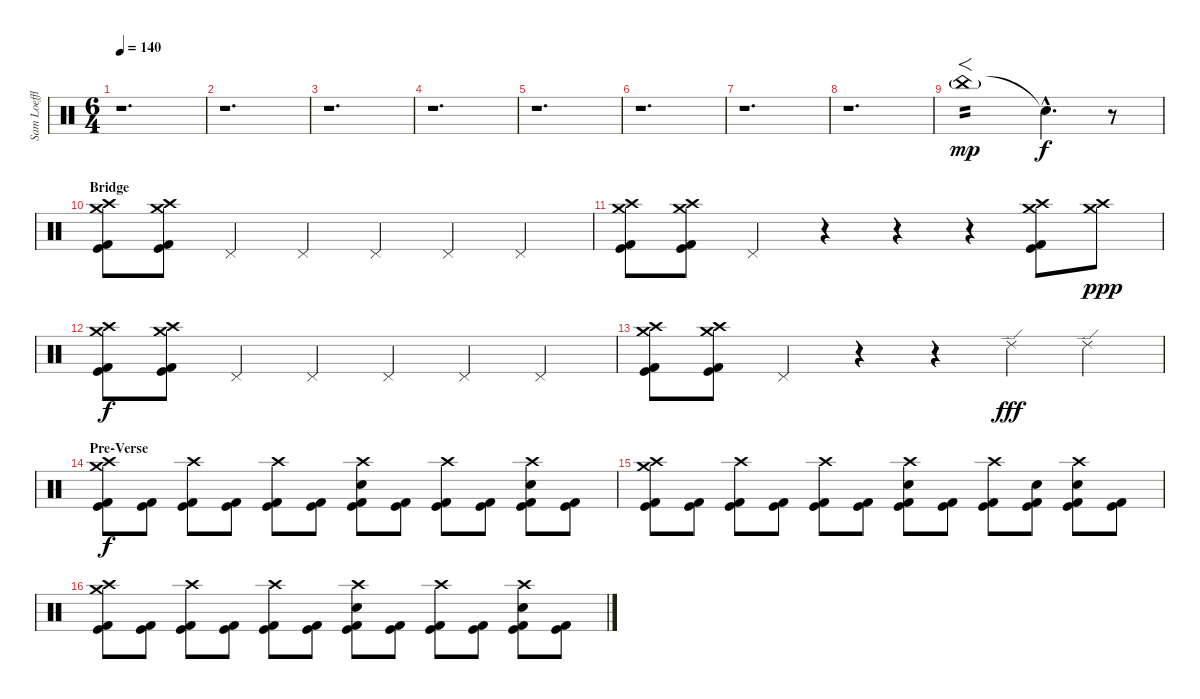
\track ("Sam Loeffler - Drums" "Sam Loeffl") {instrument percussion}
\staff {score}
\articulation defaults
\ts (6 4)
\tempo 140
\clef neutral
\ks c
r.1{d dy f} |
r.1{d} |
r.1{d} |
r.1{d} |
r.1{d} |
r.1{d} |
r.1{d} |
r.1{d} |
"China (hit)"{g}.1{f tp 2 dy mp} "Snare (hit)"{hac t}.4{d dy f} r.8 |
\section ("" "Bridge")
("Crash medium (hit)" "Crash high (hit)" "Kick (hit)" "Kick (hit) 2").8 ("Crash medium (hit)" "Crash high (hit)" "Kick (hit)" "Kick (hit) 2").8 "Pedal Hi-Hat (hit)".4 "Pedal Hi-Hat (hit)".4 "Pedal Hi-Hat (hit)".4 "Pedal Hi-Hat (hit)".4 "Pedal Hi-Hat (hit)".4 |
("Crash medium (hit)" "Crash high (hit)" "Kick (hit)" "Kick (hit) 2").8 ("Crash medium (hit)" "Crash high (hit)" "Kick (hit)" "Kick (hit) 2").8 "Pedal Hi-Hat (hit)".4 r.4 r.4 r.4 ("Crash medium (hit)" "Crash high (hit)" "Kick (hit)" "Kick (hit) 2").8 ("Crash medium (hit)" "Crash high (hit)").8{dy ppp} |
("Crash medium (hit)" "Crash high (hit)" "Kick (hit)" "Kick (hit) 2").8{dy f} ("Crash medium (hit)" "Crash high (hit)" "Kick (hit)" "Kick (hit) 2").8 "Pedal Hi-Hat (hit)".4 "Pedal Hi-Hat (hit)".4 "Pedal Hi-Hat (hit)".4 "Pedal Hi-Hat (hit)".4 "Pedal Hi-Hat (hit)".4 |
("Crash medium (hit)" "Crash high (hit)" "Kick (hit)" "Kick (hit) 2").8 ("Crash medium (hit)" "Crash high (hit)" "Kick (hit)" "Kick (hit) 2").8 "Pedal Hi-Hat (hit)".4 r.4 r.4 "Ride (edge) 2".4{dy fff} "Ride (edge) 2".4 |
\section ("" "Pre-Verse")
("Crash high (hit)" "Crash medium (hit)" "Kick (hit)" "Kick (hit) 2").8{dy f} ("Kick (hit)" "Kick (hit) 2").8 ("Crash high (hit)" "Kick (hit)" "Kick (hit) 2").8 ("Kick (hit)" "Kick (hit) 2").8 ("Crash high (hit)" "Kick (hit)" "Kick (hit) 2").8 ("Kick (hit)" "Kick (hit) 2").8 ("Crash high (hit)" "Electric Snare (hit)" "Kick (hit)" "Kick (hit) 2").8 ("Kick (hit)" "Kick (hit) 2").8 ("Crash high (hit)" "Kick (hit)" "Kick (hit) 2").8 ("Kick (hit)" "Kick (hit) 2").8 ("Crash high (hit)" "Electric Snare (hit)" "Kick (hit)" "Kick (hit) 2").8 ("Kick (hit)" "Kick (hit) 2").8 |
("Crash high (hit)" "Crash medium (hit)" "Kick (hit)" "Kick (hit) 2").8 ("Kick (hit)" "Kick (hit) 2").8 ("Crash high (hit)" "Kick (hit)" "Kick (hit) 2").8 ("Kick (hit)" "Kick (hit) 2").8 ("Crash high (hit)" "Kick (hit)" "Kick (hit) 2").8 ("Kick (hit)" "Kick (hit) 2").8 ("Crash high (hit)" "Electric Snare (hit)" "Kick (hit)" "Kick (hit) 2").8 ("Kick (hit)" "Kick (hit) 2").8 ("Crash high (hit)" "Kick (hit)" "Kick (hit) 2").8 ("Electric Snare (hit)" "Kick (hit)" "Kick (hit) 2").8 ("Crash high (hit)" "Electric Snare (hit)" "Kick (hit)" "Kick (hit) 2").8 ("Kick (hit)" "Kick (hit) 2").8 |
("Crash high (hit)" "Crash medium (hit)" "Kick (hit)" "Kick (hit) 2").8 ("Kick (hit)" "Kick (hit) 2").8 ("Crash high (hit)" "Kick (hit)" "Kick (hit) 2").8 ("Kick (hit)" "Kick (hit) 2").8 ("Crash high (hit)" "Kick (hit)" "Kick (hit) 2").8 ("Kick (hit)" "Kick (hit) 2").8 ("Crash high (hit)" "Electric Snare (hit)" "Kick (hit)" "Kick (hit) 2").8 ("Kick (hit)" "Kick (hit) 2").8 ("Crash high (hit)" "Kick (hit)" "Kick (hit) 2").8 ("Kick (hit)" "Kick (hit) 2").8 ("Crash high (hit)" "Electric Snare (hit)" "Kick (hit)" "Kick (hit) 2").8 ("Kick (hit)" "Kick (hit) 2").8
